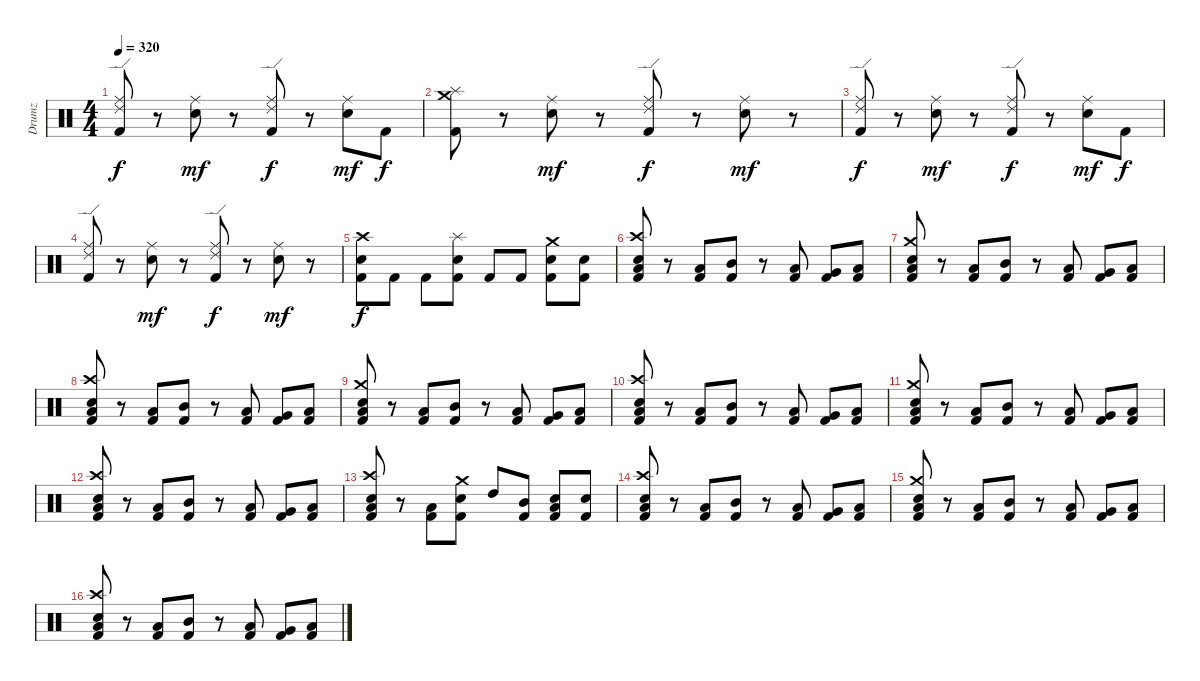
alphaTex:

\track ("Drumz" "Drumz") {instrument percussion}
\staff {score}
\articulation defaults
\ts (4 4)
\tempo 320
\clef neutral
\ks c
("Kick (hit) 2" "Ride (middle)" "Ride (edge) 2").8{dy f} r.8 ("Snare (hit) 2" "Ride (middle)").8{dy mf} r.8 ("Kick (hit) 2" "Ride (middle)" "Ride (edge) 2").8{dy f} r.8 ("Snare (hit) 2" "Ride (middle)").8{dy mf} "Kick (hit) 2".8{dy f} |
("Crash medium (hit)" "Kick (hit) 2" "Splash (hit)").8 r.8 ("Snare (hit) 2" "Ride (middle)").8{dy mf} r.8 ("Ride (edge) 2" "Kick (hit) 2" "Ride (middle)").8{dy f} r.8 ("Snare (hit) 2" "Ride (middle)").8{dy mf} r.8 |
("Kick (hit) 2" "Ride (middle)" "Ride (edge) 2").8{dy f} r.8 ("Snare (hit) 2" "Ride (middle)").8{dy mf} r.8 ("Kick (hit) 2" "Ride (middle)" "Ride (edge) 2").8{dy f} r.8 ("Snare (hit) 2" "Ride (middle)").8{dy mf} "Kick (hit) 2".8{dy f} |
("Kick (hit) 2" "Ride (middle)" "Ride (edge) 2").8 r.8 ("Snare (hit) 2" "Ride (middle)").8{dy mf} r.8 ("Kick (hit) 2" "Ride (middle)" "Ride (edge) 2").8{dy f} r.8 ("Snare (hit) 2" "Ride (middle)").8{dy mf} r.8 |
("Snare (hit) 2" "Crash high (hit)" "Kick (hit) 2").8{dy f} "Kick (hit) 2".8 "Kick (hit) 2".8 ("Kick (hit) 2" "Snare (hit) 2" "Splash (hit)").8 "Kick (hit) 2".8 "Kick (hit) 2".8 ("Snare (hit) 2" "Crash medium (hit)" "Kick (hit) 2").8 ("Snare (hit) 2" "Kick (hit) 2").8 |
("Crash high (hit)" "Snare (hit) 2" "Kick (hit) 2" "Low Tom (hit)").8 r.8 ("Kick (hit) 2" "Low Tom (hit)").8 ("Kick (hit) 2" "Mid Tom (hit)").8 r.8 ("Kick (hit) 2" "Low Tom (hit)").8 ("Kick (hit) 2" "Very Low Tom (hit)").8 ("Low Floor Tom (hit)" "Kick (hit) 2").8 |
("Crash medium (hit)" "Snare (hit) 2" "Kick (hit) 2" "Low Tom (hit)").8 r.8 ("Kick (hit) 2" "Low Tom (hit)").8 ("Kick (hit) 2" "Mid Tom (hit)").8 r.8 ("Kick (hit) 2" "Low Tom (hit)").8 ("Kick (hit) 2" "Very Low Tom (hit)").8 ("Low Floor Tom (hit)" "Kick (hit) 2").8 |
("Crash high (hit)" "Snare (hit) 2" "Kick (hit) 2" "Low Tom (hit)").8 r.8 ("Kick (hit) 2" "Low Tom (hit)").8 ("Kick (hit) 2" "Mid Tom (hit)").8 r.8 ("Kick (hit) 2" "Low Tom (hit)").8 ("Kick (hit) 2" "Very Low Tom (hit)").8 ("Low Floor Tom (hit)" "Kick (hit) 2").8 |
("Crash medium (hit)" "Snare (hit) 2" "Kick (hit) 2" "Low Tom (hit)").8 r.8 ("Kick (hit) 2" "Low Tom (hit)").8 ("Kick (hit) 2" "Mid Tom (hit)").8 r.8 ("Kick (hit) 2" "Low Tom (hit)").8 ("Kick (hit) 2" "Very Low Tom (hit)").8 ("Low Floor Tom (hit)" "Kick (hit) 2").8 |
("Crash high (hit)" "Snare (hit) 2" "Kick (hit) 2" "Low Tom (hit)").8 r.8 ("Kick (hit) 2" "Low Tom (hit)").8 ("Kick (hit) 2" "Mid Tom (hit)").8 r.8 ("Kick (hit) 2" "Low Tom (hit)").8 ("Kick (hit) 2" "Very Low Tom (hit)").8 ("Low Floor Tom (hit)" "Kick (hit) 2").8 |
("Crash medium (hit)" "Snare (hit) 2" "Kick (hit) 2" "Low Tom (hit)").8 r.8 ("Kick (hit) 2" "Low Tom (hit)").8 ("Kick (hit) 2" "Mid Tom (hit)").8 r.8 ("Kick (hit) 2" "Low Tom (hit)").8 ("Kick (hit) 2" "Very Low Tom (hit)").8 ("Low Floor Tom (hit)" "Kick (hit) 2").8 |
("Crash high (hit)" "Snare (hit) 2" "Kick (hit) 2" "Low Tom (hit)").8 r.8 ("Kick (hit) 2" "Low Tom (hit)").8 ("Kick (hit) 2" "Mid Tom (hit)").8 r.8 ("Kick (hit) 2" "Low Tom (hit)").8 ("Kick (hit) 2" "Very Low Tom (hit)").8 ("Low Floor Tom (hit)" "Kick (hit) 2").8 |
("Crash high (hit)" "Low Tom (hit)" "Snare (hit) 2" "Kick (hit) 2").8 r.8 ("Low Tom (hit)" "Kick (hit) 2").8 ("Crash medium (hit)" "Snare (hit) 2" "Kick (hit) 2").8 "High Tom (hit)".8 ("Mid Tom (hit)" "Kick (hit) 2").8 ("Snare (hit) 2" "Low Tom (hit)" "Kick (hit) 2").8 ("Snare (hit) 2" "Kick (hit) 2").8 |
("Crash high (hit)" "Snare (hit) 2" "Kick (hit) 2" "Low Tom (hit)").8 r.8 ("Kick (hit) 2" "Low Tom (hit)").8 ("Kick (hit) 2" "Mid Tom (hit)").8 r.8 ("Kick (hit) 2" "Low Tom (hit)").8 ("Kick (hit) 2" "Very Low Tom (hit)").8 ("Low Floor Tom (hit)" "Kick (hit) 2").8 |
("Crash medium (hit)" "Snare (hit) 2" "Kick (hit) 2" "Low Tom (hit)").8 r.8 ("Kick (hit) 2" "Low Tom (hit)").8 ("Kick (hit) 2" "Mid Tom (hit)").8 r.8 ("Kick (hit) 2" "Low Tom (hit)").8 ("Kick (hit) 2" "Very Low Tom (hit)").8 ("Low Floor Tom (hit)" "Kick (hit) 2").8 |
("Crash high (hit)" "Snare (hit) 2" "Kick (hit) 2" "Low Tom (hit)").8 r.8 ("Kick (hit) 2" "Low Tom (hit)").8 ("Kick (hit) 2" "Mid Tom (hit)").8 r.8 ("Kick (hit) 2" "Low Tom (hit)").8 ("Kick (hit) 2" "Very Low Tom (hit)").8 ("Low Floor Tom (hit)" "Kick (hit) 2").8
